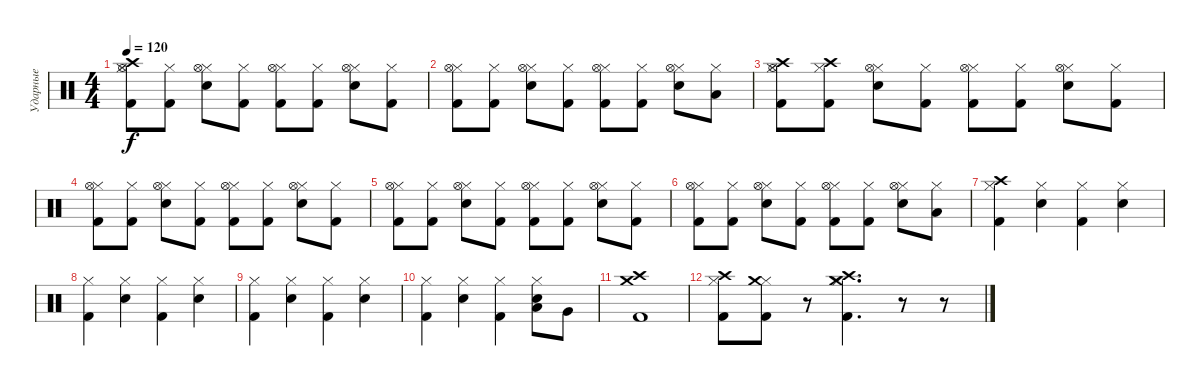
\track ("Ударные" "Ударные") {instrument percussion}
\staff {score}
\articulation defaults
\ts (4 4)
\tempo 120
\clef neutral
\ks c
("Kick (hit) 2" "Hi-Hat (closed)" "Hi-Hat (open)" "Crash high (hit)").8{dy f} ("Kick (hit) 2" "Hi-Hat (closed)").8 ("Electric Snare (hit)" "Hi-Hat (closed)" "Hi-Hat (open)").8 ("Kick (hit) 2" "Hi-Hat (closed)").8 ("Kick (hit) 2" "Hi-Hat (closed)" "Hi-Hat (open)").8 ("Kick (hit) 2" "Hi-Hat (closed)").8 ("Electric Snare (hit)" "Hi-Hat (closed)" "Hi-Hat (open)").8 ("Kick (hit) 2" "Hi-Hat (closed)").8 |
("Kick (hit) 2" "Hi-Hat (closed)" "Hi-Hat (open)").8 ("Kick (hit) 2" "Hi-Hat (closed)").8 ("Electric Snare (hit)" "Hi-Hat (closed)" "Hi-Hat (open)").8 ("Kick (hit) 2" "Hi-Hat (closed)").8 ("Kick (hit) 2" "Hi-Hat (closed)" "Hi-Hat (open)").8 ("Kick (hit) 2" "Hi-Hat (closed)").8 ("Electric Snare (hit)" "Hi-Hat (closed)" "Hi-Hat (open)").8 ("Low Tom (hit)" "Hi-Hat (closed)").8 |
("Kick (hit) 2" "Hi-Hat (closed)" "Crash high (hit)" "Hi-Hat (open)").8 ("Kick (hit) 2" "Hi-Hat (closed)" "Crash high (hit)").8 ("Electric Snare (hit)" "Hi-Hat (closed)" "Hi-Hat (open)").8 ("Kick (hit) 2" "Hi-Hat (closed)").8 ("Kick (hit) 2" "Hi-Hat (closed)" "Hi-Hat (open)").8 ("Kick (hit) 2" "Hi-Hat (closed)").8 ("Electric Snare (hit)" "Hi-Hat (closed)" "Hi-Hat (open)").8 ("Kick (hit) 2" "Hi-Hat (closed)").8 |
("Kick (hit) 2" "Hi-Hat (closed)" "Hi-Hat (open)").8 ("Kick (hit) 2" "Hi-Hat (closed)").8 ("Electric Snare (hit)" "Hi-Hat (closed)" "Hi-Hat (open)").8 ("Kick (hit) 2" "Hi-Hat (closed)").8 ("Kick (hit) 2" "Hi-Hat (closed)" "Hi-Hat (open)").8 ("Kick (hit) 2" "Hi-Hat (closed)").8 ("Electric Snare (hit)" "Hi-Hat (closed)" "Hi-Hat (open)").8 ("Kick (hit) 2" "Hi-Hat (closed)").8 |
("Kick (hit) 2" "Hi-Hat (closed)" "Hi-Hat (open)").8 ("Kick (hit) 2" "Hi-Hat (closed)").8 ("Electric Snare (hit)" "Hi-Hat (closed)" "Hi-Hat (open)").8 ("Kick (hit) 2" "Hi-Hat (closed)").8 ("Kick (hit) 2" "Hi-Hat (closed)" "Hi-Hat (open)").8 ("Kick (hit) 2" "Hi-Hat (closed)").8 ("Electric Snare (hit)" "Hi-Hat (closed)" "Hi-Hat (open)").8 ("Kick (hit) 2" "Hi-Hat (closed)").8 |
("Kick (hit) 2" "Hi-Hat (closed)" "Hi-Hat (open)").8 ("Kick (hit) 2" "Hi-Hat (closed)").8 ("Electric Snare (hit)" "Hi-Hat (closed)" "Hi-Hat (open)").8 ("Kick (hit) 2" "Hi-Hat (closed)").8 ("Kick (hit) 2" "Hi-Hat (closed)" "Hi-Hat (open)").8 ("Kick (hit) 2" "Hi-Hat (closed)").8 ("Electric Snare (hit)" "Hi-Hat (closed)" "Hi-Hat (open)").8 ("Low Tom (hit)" "Hi-Hat (closed)").8 |
("Hi-Hat (closed)" "Crash high (hit)" "Kick (hit) 2").4 ("Hi-Hat (closed)" "Electric Snare (hit)").4 ("Hi-Hat (closed)" "Kick (hit) 2").4 ("Hi-Hat (closed)" "Electric Snare (hit)").4 |
("Hi-Hat (closed)" "Kick (hit) 2").4 ("Hi-Hat (closed)" "Electric Snare (hit)").4 ("Hi-Hat (closed)" "Kick (hit) 2").4 ("Hi-Hat (closed)" "Electric Snare (hit)").4 |
("Hi-Hat (closed)" "Kick (hit) 2").4 ("Hi-Hat (closed)" "Electric Snare (hit)").4 ("Hi-Hat (closed)" "Kick (hit) 2").4 ("Hi-Hat (closed)" "Electric Snare (hit)").4 |
("Hi-Hat (closed)" "Kick (hit) 2").4 ("Hi-Hat (closed)" "Electric Snare (hit)").4 ("Hi-Hat (closed)" "Kick (hit) 2").4 ("Hi-Hat (closed)" "Electric Snare (hit)" "Low Tom (hit)").8 "Very Low Tom (hit)".8 |
("Kick (hit) 2" "Crash high (hit)" "Crash medium (hit)").1 |
("Kick (hit) 2" "Hi-Hat (closed)" "Crash high (hit)").8 ("Kick (hit) 2" "Hi-Hat (closed)" "Crash medium (hit)").8 r.8 ("Kick (hit) 2" "Hi-Hat (closed)" "Crash high (hit)" "Crash medium (hit)").4{d} r.8 r.8
